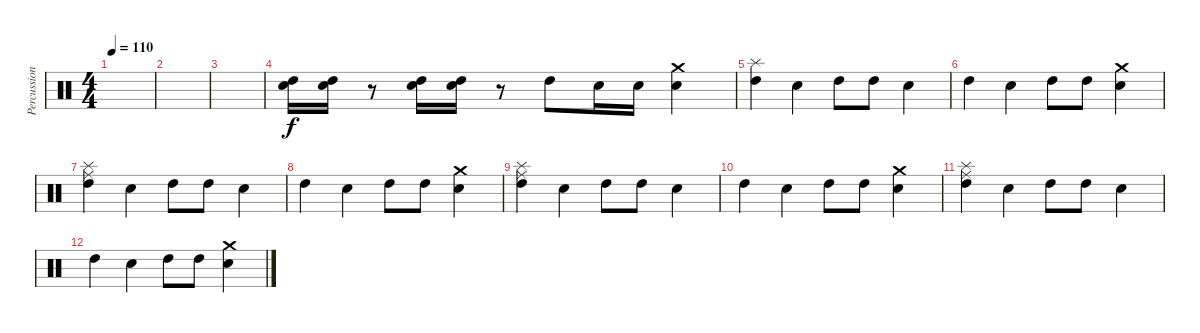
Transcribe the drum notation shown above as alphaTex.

\track ("Percussions" "Percussion") {instrument percussion}
\staff {score}
\articulation defaults
\ts (4 4)
\tempo 110
\clef neutral
\ks c
|
|
|
("High Tom (hit)" "Electric Snare (hit)").16 ("High Tom (hit)" "Electric Snare (hit)").16 r.8 ("High Tom (hit)" "Electric Snare (hit)").16 ("High Tom (hit)" "Electric Snare (hit)").16 r.8 "High Tom (hit)".8 "Electric Snare (hit)".16 "Electric Snare (hit)".16 ("Crash medium (hit)" "Electric Snare (hit)").4 |
("High Tom (hit)" "Splash (hit)").4 "Electric Snare (hit)".4 "High Tom (hit)".8 "High Tom (hit)".8 "Electric Snare (hit)".4 |
"High Tom (hit)".4 "Electric Snare (hit)".4 "High Tom (hit)".8 "High Tom (hit)".8 ("Electric Snare (hit)" "Crash medium (hit)").4 |
("High Tom (hit)" "Ride (middle)" "Splash (hit)").4 "Electric Snare (hit)".4 "High Tom (hit)".8 "High Tom (hit)".8 "Electric Snare (hit)".4 |
"High Tom (hit)".4 "Electric Snare (hit)".4 "High Tom (hit)".8 "High Tom (hit)".8 ("Electric Snare (hit)" "Crash medium (hit)").4 |
("High Tom (hit)" "Ride (middle)" "Splash (hit)").4 "Electric Snare (hit)".4 "High Tom (hit)".8 "High Tom (hit)".8 "Electric Snare (hit)".4 |
"High Tom (hit)".4 "Electric Snare (hit)".4 "High Tom (hit)".8 "High Tom (hit)".8 ("Electric Snare (hit)" "Crash medium (hit)").4 |
("High Tom (hit)" "Ride (middle)" "Splash (hit)").4 "Electric Snare (hit)".4 "High Tom (hit)".8 "High Tom (hit)".8 "Electric Snare (hit)".4 |
"High Tom (hit)".4 "Electric Snare (hit)".4 "High Tom (hit)".8 "High Tom (hit)".8 ("Electric Snare (hit)" "Crash medium (hit)").4
